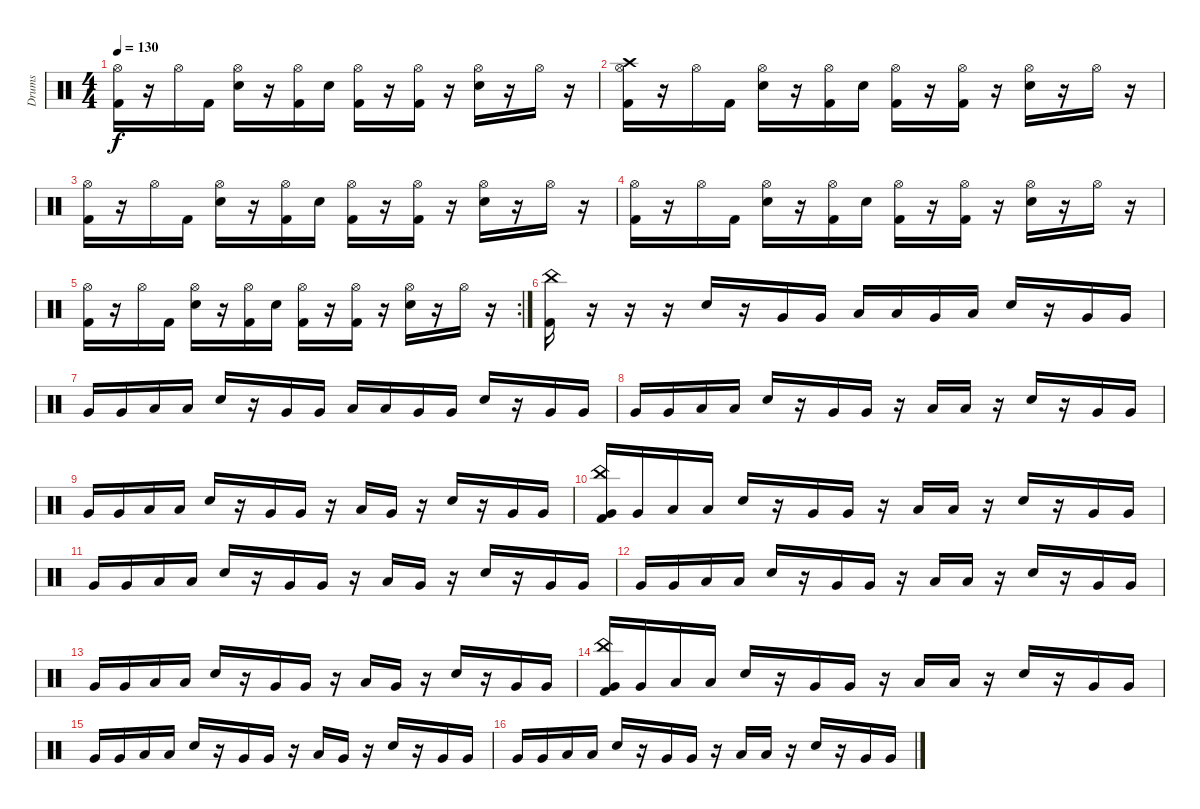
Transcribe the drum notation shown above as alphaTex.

\track ("Drums" "Drums") {instrument percussion}
\staff {score}
\articulation defaults
\ts (4 4)
\tempo 130
\clef neutral
\ks c
("Kick (hit) 2" "Hi-Hat (open)").16{dy f} r.16 "Hi-Hat (open)".16 "Kick (hit) 2".16 ("Electric Snare (hit)" "Hi-Hat (open)").16 r.16 ("Kick (hit) 2" "Hi-Hat (open)").16 "Electric Snare (hit)".16 ("Kick (hit) 2" "Hi-Hat (open)").16 r.16 ("Kick (hit) 2" "Hi-Hat (open)").16 r.16 ("Electric Snare (hit)" "Hi-Hat (open)").16 r.16 "Hi-Hat (open)".16 r.16 |
("Kick (hit) 2" "Crash high (hit)" "Hi-Hat (open)").16 r.16 "Hi-Hat (open)".16 "Kick (hit) 2".16 ("Electric Snare (hit)" "Hi-Hat (open)").16 r.16 ("Kick (hit) 2" "Hi-Hat (open)").16 "Electric Snare (hit)".16 ("Kick (hit) 2" "Hi-Hat (open)").16 r.16 ("Kick (hit) 2" "Hi-Hat (open)").16 r.16 ("Electric Snare (hit)" "Hi-Hat (open)").16 r.16 "Hi-Hat (open)".16 r.16 |
("Kick (hit) 2" "Hi-Hat (open)").16 r.16 "Hi-Hat (open)".16 "Kick (hit) 2".16 ("Electric Snare (hit)" "Hi-Hat (open)").16 r.16 ("Kick (hit) 2" "Hi-Hat (open)").16 "Electric Snare (hit)".16 ("Kick (hit) 2" "Hi-Hat (open)").16 r.16 ("Kick (hit) 2" "Hi-Hat (open)").16 r.16 ("Electric Snare (hit)" "Hi-Hat (open)").16 r.16 "Hi-Hat (open)".16 r.16 |
("Kick (hit) 2" "Hi-Hat (open)").16 r.16 "Hi-Hat (open)".16 "Kick (hit) 2".16 ("Electric Snare (hit)" "Hi-Hat (open)").16 r.16 ("Kick (hit) 2" "Hi-Hat (open)").16 "Electric Snare (hit)".16 ("Kick (hit) 2" "Hi-Hat (open)").16 r.16 ("Kick (hit) 2" "Hi-Hat (open)").16 r.16 ("Electric Snare (hit)" "Hi-Hat (open)").16 r.16 "Hi-Hat (open)".16 r.16 |
\rc 2
("Kick (hit) 2" "Hi-Hat (open)").16 r.16 "Hi-Hat (open)".16 "Kick (hit) 2".16 ("Electric Snare (hit)" "Hi-Hat (open)").16 r.16 ("Kick (hit) 2" "Hi-Hat (open)").16 "Electric Snare (hit)".16 ("Kick (hit) 2" "Hi-Hat (open)").16 r.16 ("Kick (hit) 2" "Hi-Hat (open)").16 r.16 ("Electric Snare (hit)" "Hi-Hat (open)").16 r.16 "Hi-Hat (open)".16 r.16 |
("Kick (hit) 2" "China (hit)").16 r.16 r.16 r.16 "Electric Snare (hit)".16 r.16 "Very Low Tom (hit)".16 "Very Low Tom (hit)".16 "Low Floor Tom (hit)".16 "Low Floor Tom (hit)".16 "Very Low Tom (hit)".16 "Low Floor Tom (hit)".16 "Electric Snare (hit)".16 r.16 "Very Low Tom (hit)".16 "Very Low Tom (hit)".16 |
"Very Low Tom (hit)".16 "Very Low Tom (hit)".16 "Low Floor Tom (hit)".16 "Low Floor Tom (hit)".16 "Electric Snare (hit)".16 r.16 "Very Low Tom (hit)".16 "Very Low Tom (hit)".16 "Low Floor Tom (hit)".16 "Low Floor Tom (hit)".16 "Very Low Tom (hit)".16 "Very Low Tom (hit)".16 "Electric Snare (hit)".16 r.16 "Very Low Tom (hit)".16 "Very Low Tom (hit)".16 |
"Very Low Tom (hit)".16 "Very Low Tom (hit)".16 "Low Floor Tom (hit)".16 "Low Floor Tom (hit)".16 "Electric Snare (hit)".16 r.16 "Very Low Tom (hit)".16 "Very Low Tom (hit)".16 r.16 "Low Floor Tom (hit)".16 "Low Floor Tom (hit)".16 r.16 "Electric Snare (hit)".16 r.16 "Very Low Tom (hit)".16 "Very Low Tom (hit)".16 |
"Very Low Tom (hit)".16 "Very Low Tom (hit)".16 "Low Floor Tom (hit)".16 "Low Floor Tom (hit)".16 "Electric Snare (hit)".16 r.16 "Very Low Tom (hit)".16 "Very Low Tom (hit)".16 r.16 "Low Floor Tom (hit)".16 "Very Low Tom (hit)".16 r.16 "Electric Snare (hit)".16 r.16 "Very Low Tom (hit)".16 "Very Low Tom (hit)".16 |
("Kick (hit) 2" "Very Low Tom (hit)" "China (hit)").16 "Very Low Tom (hit)".16 "Low Floor Tom (hit)".16 "Low Floor Tom (hit)".16 "Electric Snare (hit)".16 r.16 "Very Low Tom (hit)".16 "Very Low Tom (hit)".16 r.16 "Low Floor Tom (hit)".16 "Low Floor Tom (hit)".16 r.16 "Electric Snare (hit)".16 r.16 "Very Low Tom (hit)".16 "Very Low Tom (hit)".16 |
"Very Low Tom (hit)".16 "Very Low Tom (hit)".16 "Low Floor Tom (hit)".16 "Low Floor Tom (hit)".16 "Electric Snare (hit)".16 r.16 "Very Low Tom (hit)".16 "Very Low Tom (hit)".16 r.16 "Low Floor Tom (hit)".16 "Very Low Tom (hit)".16 r.16 "Electric Snare (hit)".16 r.16 "Very Low Tom (hit)".16 "Very Low Tom (hit)".16 |
"Very Low Tom (hit)".16 "Very Low Tom (hit)".16 "Low Floor Tom (hit)".16 "Low Floor Tom (hit)".16 "Electric Snare (hit)".16 r.16 "Very Low Tom (hit)".16 "Very Low Tom (hit)".16 r.16 "Low Floor Tom (hit)".16 "Low Floor Tom (hit)".16 r.16 "Electric Snare (hit)".16 r.16 "Very Low Tom (hit)".16 "Very Low Tom (hit)".16 |
"Very Low Tom (hit)".16 "Very Low Tom (hit)".16 "Low Floor Tom (hit)".16 "Low Floor Tom (hit)".16 "Electric Snare (hit)".16 r.16 "Very Low Tom (hit)".16 "Very Low Tom (hit)".16 r.16 "Low Floor Tom (hit)".16 "Very Low Tom (hit)".16 r.16 "Electric Snare (hit)".16 r.16 "Very Low Tom (hit)".16 "Very Low Tom (hit)".16 |
("Kick (hit) 2" "Very Low Tom (hit)" "China (hit)").16 "Very Low Tom (hit)".16 "Low Floor Tom (hit)".16 "Low Floor Tom (hit)".16 "Electric Snare (hit)".16 r.16 "Very Low Tom (hit)".16 "Very Low Tom (hit)".16 r.16 "Low Floor Tom (hit)".16 "Low Floor Tom (hit)".16 r.16 "Electric Snare (hit)".16 r.16 "Very Low Tom (hit)".16 "Very Low Tom (hit)".16 |
"Very Low Tom (hit)".16 "Very Low Tom (hit)".16 "Low Floor Tom (hit)".16 "Low Floor Tom (hit)".16 "Electric Snare (hit)".16 r.16 "Very Low Tom (hit)".16 "Very Low Tom (hit)".16 r.16 "Low Floor Tom (hit)".16 "Very Low Tom (hit)".16 r.16 "Electric Snare (hit)".16 r.16 "Very Low Tom (hit)".16 "Very Low Tom (hit)".16 |
"Very Low Tom (hit)".16 "Very Low Tom (hit)".16 "Low Floor Tom (hit)".16 "Low Floor Tom (hit)".16 "Electric Snare (hit)".16 r.16 "Very Low Tom (hit)".16 "Very Low Tom (hit)".16 r.16 "Low Floor Tom (hit)".16 "Low Floor Tom (hit)".16 r.16 "Electric Snare (hit)".16 r.16 "Very Low Tom (hit)".16 "Very Low Tom (hit)".16
